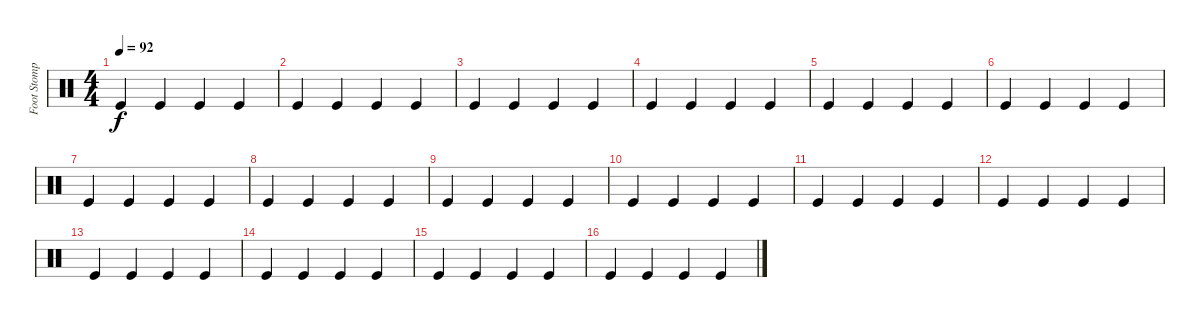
\track ("Foot Stomp" "Foot Stomp") {instrument percussion}
\staff {score}
\articulation defaults
\ts (4 4)
\tempo 92
\clef neutral
\ks c "Kick (hit)".4{dy f} "Kick (hit)".4 "Kick (hit)".4 "Kick (hit)".4
|
"Kick (hit)".4 "Kick (hit)".4 "Kick (hit)".4 "Kick (hit)".4 |
"Kick (hit)".4 "Kick (hit)".4 "Kick (hit)".4 "Kick (hit)".4 |
"Kick (hit)".4 "Kick (hit)".4 "Kick (hit)".4 "Kick (hit)".4 |
"Kick (hit)".4 "Kick (hit)".4 "Kick (hit)".4 "Kick (hit)".4 |
"Kick (hit)".4 "Kick (hit)".4 "Kick (hit)".4 "Kick (hit)".4 |
"Kick (hit)".4 "Kick (hit)".4 "Kick (hit)".4 "Kick (hit)".4 |
"Kick (hit)".4 "Kick (hit)".4 "Kick (hit)".4 "Kick (hit)".4 |
"Kick (hit)".4 "Kick (hit)".4 "Kick (hit)".4 "Kick (hit)".4 |
"Kick (hit)".4 "Kick (hit)".4 "Kick (hit)".4 "Kick (hit)".4 |
"Kick (hit)".4 "Kick (hit)".4 "Kick (hit)".4 "Kick (hit)".4 |
"Kick (hit)".4 "Kick (hit)".4 "Kick (hit)".4 "Kick (hit)".4 |
"Kick (hit)".4 "Kick (hit)".4 "Kick (hit)".4 "Kick (hit)".4 |
"Kick (hit)".4 "Kick (hit)".4 "Kick (hit)".4 "Kick (hit)".4 |
"Kick (hit)".4 "Kick (hit)".4 "Kick (hit)".4 "Kick (hit)".4 |
"Kick (hit)".4 "Kick (hit)".4 "Kick (hit)".4 "Kick (hit)".4
